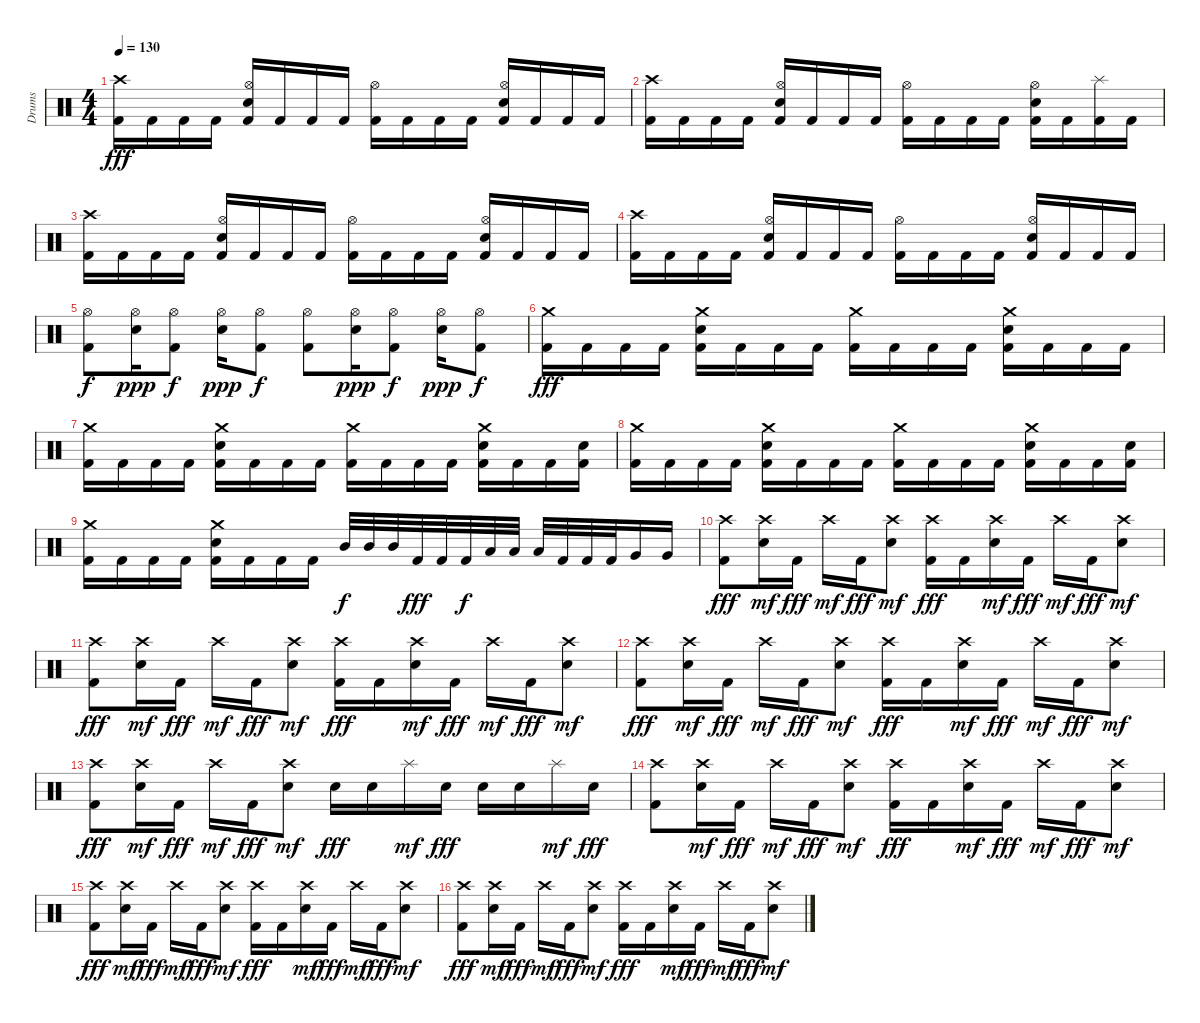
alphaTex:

\track ("Drums" "Drums") {instrument percussion}
\staff {score}
\articulation defaults
\ts (4 4)
\tempo 130
\clef neutral
\ks c
("Crash high (hit)" "Kick (hit) 2").16{dy fff} "Kick (hit) 2".16 "Kick (hit) 2".16 "Kick (hit) 2".16 ("Hi-Hat (open)" "Electric Snare (hit)" "Kick (hit) 2").16 "Kick (hit) 2".16 "Kick (hit) 2".16 "Kick (hit) 2".16 ("Hi-Hat (open)" "Kick (hit) 2").16 "Kick (hit) 2".16 "Kick (hit) 2".16 "Kick (hit) 2".16 ("Hi-Hat (open)" "Electric Snare (hit)" "Kick (hit) 2").16 "Kick (hit) 2".16 "Kick (hit) 2".16 "Kick (hit) 2".16 |
("Crash high (hit)" "Kick (hit) 2").16 "Kick (hit) 2".16 "Kick (hit) 2".16 "Kick (hit) 2".16 ("Hi-Hat (open)" "Electric Snare (hit)" "Kick (hit) 2").16 "Kick (hit) 2".16 "Kick (hit) 2".16 "Kick (hit) 2".16 ("Hi-Hat (open)" "Kick (hit) 2").16 "Kick (hit) 2".16 "Kick (hit) 2".16 "Kick (hit) 2".16 ("Hi-Hat (open)" "Electric Snare (hit)" "Kick (hit) 2").16 "Kick (hit) 2".16 ("Splash (hit)" "Kick (hit) 2").16 "Kick (hit) 2".16 |
("Crash high (hit)" "Kick (hit) 2").16 "Kick (hit) 2".16 "Kick (hit) 2".16 "Kick (hit) 2".16 ("Hi-Hat (open)" "Electric Snare (hit)" "Kick (hit) 2").16 "Kick (hit) 2".16 "Kick (hit) 2".16 "Kick (hit) 2".16 ("Hi-Hat (open)" "Kick (hit) 2").16 "Kick (hit) 2".16 "Kick (hit) 2".16 "Kick (hit) 2".16 ("Hi-Hat (open)" "Electric Snare (hit)" "Kick (hit) 2").16 "Kick (hit) 2".16 "Kick (hit) 2".16 "Kick (hit) 2".16 |
("Crash high (hit)" "Kick (hit) 2").16 "Kick (hit) 2".16 "Kick (hit) 2".16 "Kick (hit) 2".16 ("Hi-Hat (open)" "Electric Snare (hit)" "Kick (hit) 2").16 "Kick (hit) 2".16 "Kick (hit) 2".16 "Kick (hit) 2".16 ("Hi-Hat (open)" "Kick (hit) 2").16 "Kick (hit) 2".16 "Kick (hit) 2".16 "Kick (hit) 2".16 ("Hi-Hat (open)" "Electric Snare (hit)" "Kick (hit) 2").16 "Kick (hit) 2".16 "Kick (hit) 2".16 "Kick (hit) 2".16 |
("Hi-Hat (open)" "Kick (hit) 2").8{dy f} ("Hi-Hat (open)" "Electric Snare (hit)").16{dy ppp} ("Hi-Hat (open)" "Kick (hit) 2").8{dy f} ("Hi-Hat (open)" "Electric Snare (hit)").16{dy ppp} ("Hi-Hat (open)" "Kick (hit) 2").8{dy f} ("Hi-Hat (open)" "Kick (hit) 2").8 ("Hi-Hat (open)" "Electric Snare (hit)").16{dy ppp} ("Hi-Hat (open)" "Kick (hit) 2").8{dy f} ("Hi-Hat (open)" "Electric Snare (hit)").16{dy ppp} ("Hi-Hat (open)" "Kick (hit) 2").8{dy f} |
("Crash medium (hit)" "Kick (hit) 2").16{dy fff} "Kick (hit) 2".16 "Kick (hit) 2".16 "Kick (hit) 2".16 ("Crash medium (hit)" "Electric Snare (hit)" "Kick (hit) 2").16 "Kick (hit) 2".16 "Kick (hit) 2".16 "Kick (hit) 2".16 ("Crash medium (hit)" "Kick (hit) 2").16 "Kick (hit) 2".16 "Kick (hit) 2".16 "Kick (hit) 2".16 ("Crash medium (hit)" "Electric Snare (hit)" "Kick (hit) 2").16 "Kick (hit) 2".16 "Kick (hit) 2".16 "Kick (hit) 2".16 |
("Crash medium (hit)" "Kick (hit) 2").16 "Kick (hit) 2".16 "Kick (hit) 2".16 "Kick (hit) 2".16 ("Crash medium (hit)" "Electric Snare (hit)" "Kick (hit) 2").16 "Kick (hit) 2".16 "Kick (hit) 2".16 "Kick (hit) 2".16 ("Crash medium (hit)" "Kick (hit) 2").16 "Kick (hit) 2".16 "Kick (hit) 2".16 "Kick (hit) 2".16 ("Crash medium (hit)" "Electric Snare (hit)" "Kick (hit) 2").16 "Kick (hit) 2".16 "Kick (hit) 2".16 ("Electric Snare (hit)" "Kick (hit) 2").16 |
("Crash medium (hit)" "Kick (hit) 2").16 "Kick (hit) 2".16 "Kick (hit) 2".16 "Kick (hit) 2".16 ("Crash medium (hit)" "Electric Snare (hit)" "Kick (hit) 2").16 "Kick (hit) 2".16 "Kick (hit) 2".16 "Kick (hit) 2".16 ("Crash medium (hit)" "Kick (hit) 2").16 "Kick (hit) 2".16 "Kick (hit) 2".16 "Kick (hit) 2".16 ("Crash medium (hit)" "Electric Snare (hit)" "Kick (hit) 2").16 "Kick (hit) 2".16 "Kick (hit) 2".16 ("Electric Snare (hit)" "Kick (hit) 2").16 |
("Crash medium (hit)" "Kick (hit) 2").16 "Kick (hit) 2".16 "Kick (hit) 2".16 "Kick (hit) 2".16 ("Crash medium (hit)" "Electric Snare (hit)" "Kick (hit) 2").16 "Kick (hit) 2".16 "Kick (hit) 2".16 "Kick (hit) 2".16 "Mid Tom (hit)".32{dy f} "Mid Tom (hit)".32 "Mid Tom (hit)".32 "Kick (hit) 2".32{dy fff} "Kick (hit) 2".32 "Kick (hit) 2".32{dy f} "Low Tom (hit)".32 "Low Tom (hit)".32 "Low Tom (hit)".32 "Kick (hit) 2".32 "Kick (hit) 2".32 "Kick (hit) 2".32 "Very Low Tom (hit)".16 "Very Low Tom (hit)".16 |
("Crash high (hit)" "Kick (hit) 2").8{dy fff} ("Crash high (hit)" "Electric Snare (hit)").16{dy mf} "Kick (hit) 2".16{dy fff} "Crash high (hit)".16{dy mf} "Kick (hit) 2".16{dy fff} ("Crash high (hit)" "Electric Snare (hit)").8{dy mf} ("Crash high (hit)" "Kick (hit) 2").16{dy fff} "Kick (hit) 2".16 ("Crash high (hit)" "Electric Snare (hit)").16{dy mf} "Kick (hit) 2".16{dy fff} "Crash high (hit)".16{dy mf} "Kick (hit) 2".16{dy fff} ("Crash high (hit)" "Electric Snare (hit)").8{dy mf} |
("Crash high (hit)" "Kick (hit) 2").8{dy fff} ("Crash high (hit)" "Electric Snare (hit)").16{dy mf} "Kick (hit) 2".16{dy fff} "Crash high (hit)".16{dy mf} "Kick (hit) 2".16{dy fff} ("Crash high (hit)" "Electric Snare (hit)").8{dy mf} ("Crash high (hit)" "Kick (hit) 2").16{dy fff} "Kick (hit) 2".16 ("Crash high (hit)" "Electric Snare (hit)").16{dy mf} "Kick (hit) 2".16{dy fff} "Crash high (hit)".16{dy mf} "Kick (hit) 2".16{dy fff} ("Crash high (hit)" "Electric Snare (hit)").8{dy mf} |
("Crash high (hit)" "Kick (hit) 2").8{dy fff} ("Crash high (hit)" "Electric Snare (hit)").16{dy mf} "Kick (hit) 2".16{dy fff} "Crash high (hit)".16{dy mf} "Kick (hit) 2".16{dy fff} ("Crash high (hit)" "Electric Snare (hit)").8{dy mf} ("Crash high (hit)" "Kick (hit) 2").16{dy fff} "Kick (hit) 2".16 ("Crash high (hit)" "Electric Snare (hit)").16{dy mf} "Kick (hit) 2".16{dy fff} "Crash high (hit)".16{dy mf} "Kick (hit) 2".16{dy fff} ("Crash high (hit)" "Electric Snare (hit)").8{dy mf} |
("Crash high (hit)" "Kick (hit) 2").8{dy fff} ("Crash high (hit)" "Electric Snare (hit)").16{dy mf} "Kick (hit) 2".16{dy fff} "Crash high (hit)".16{dy mf} "Kick (hit) 2".16{dy fff} ("Crash high (hit)" "Electric Snare (hit)").8{dy mf} "Electric Snare (hit)".16{dy fff} "Electric Snare (hit)".16 "Splash (hit)".16{dy mf} "Electric Snare (hit)".16{dy fff} "Electric Snare (hit)".16 "Electric Snare (hit)".16 "Splash (hit)".16{dy mf} "Electric Snare (hit)".16{dy fff} |
("Crash high (hit)" "Kick (hit) 2").8 ("Crash high (hit)" "Electric Snare (hit)").16{dy mf} "Kick (hit) 2".16{dy fff} "Crash high (hit)".16{dy mf} "Kick (hit) 2".16{dy fff} ("Crash high (hit)" "Electric Snare (hit)").8{dy mf} ("Crash high (hit)" "Kick (hit) 2").16{dy fff} "Kick (hit) 2".16 ("Crash high (hit)" "Electric Snare (hit)").16{dy mf} "Kick (hit) 2".16{dy fff} "Crash high (hit)".16{dy mf} "Kick (hit) 2".16{dy fff} ("Crash high (hit)" "Electric Snare (hit)").8{dy mf} |
("Crash high (hit)" "Kick (hit) 2").8{dy fff} ("Crash high (hit)" "Electric Snare (hit)").16{dy mf} "Kick (hit) 2".16{dy fff} "Crash high (hit)".16{dy mf} "Kick (hit) 2".16{dy fff} ("Crash high (hit)" "Electric Snare (hit)").8{dy mf} ("Crash high (hit)" "Kick (hit) 2").16{dy fff} "Kick (hit) 2".16 ("Crash high (hit)" "Electric Snare (hit)").16{dy mf} "Kick (hit) 2".16{dy fff} "Crash high (hit)".16{dy mf} "Kick (hit) 2".16{dy fff} ("Crash high (hit)" "Electric Snare (hit)").8{dy mf} |
("Crash high (hit)" "Kick (hit) 2").8{dy fff} ("Crash high (hit)" "Electric Snare (hit)").16{dy mf} "Kick (hit) 2".16{dy fff} "Crash high (hit)".16{dy mf} "Kick (hit) 2".16{dy fff} ("Crash high (hit)" "Electric Snare (hit)").8{dy mf} ("Crash high (hit)" "Kick (hit) 2").16{dy fff} "Kick (hit) 2".16 ("Crash high (hit)" "Electric Snare (hit)").16{dy mf} "Kick (hit) 2".16{dy fff} "Crash high (hit)".16{dy mf} "Kick (hit) 2".16{dy fff} ("Crash high (hit)" "Electric Snare (hit)").8{dy mf}
